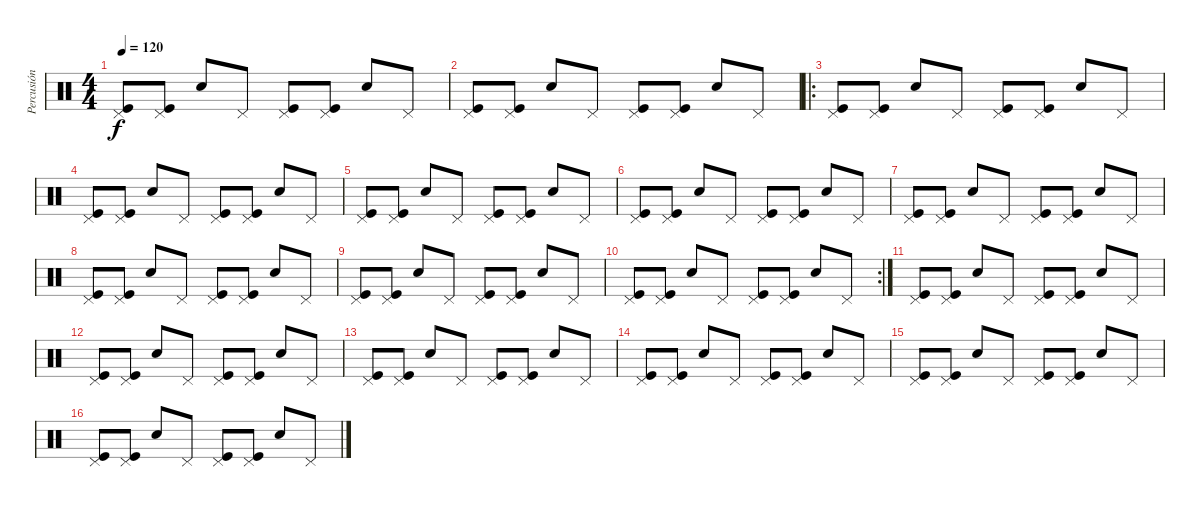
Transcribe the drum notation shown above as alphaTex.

\track ("Percusión" "Percusión") {instrument percussion}
\staff {score}
\articulation defaults
\ts (4 4)
\tempo 120
\clef neutral
\ks c
("Pedal Hi-Hat (hit)" "Kick (hit)").8{dy f} ("Pedal Hi-Hat (hit)" "Kick (hit)").8 "Electric Snare (hit)".8 "Pedal Hi-Hat (hit)".8 ("Pedal Hi-Hat (hit)" "Kick (hit)").8 ("Pedal Hi-Hat (hit)" "Kick (hit)").8 "Electric Snare (hit)".8 "Pedal Hi-Hat (hit)".8 |
("Pedal Hi-Hat (hit)" "Kick (hit)").8 ("Pedal Hi-Hat (hit)" "Kick (hit)").8 "Electric Snare (hit)".8 "Pedal Hi-Hat (hit)".8 ("Pedal Hi-Hat (hit)" "Kick (hit)").8 ("Pedal Hi-Hat (hit)" "Kick (hit)").8 "Electric Snare (hit)".8 "Pedal Hi-Hat (hit)".8 |
\ro
("Pedal Hi-Hat (hit)" "Kick (hit)").8 ("Pedal Hi-Hat (hit)" "Kick (hit)").8 "Electric Snare (hit)".8 "Pedal Hi-Hat (hit)".8 ("Pedal Hi-Hat (hit)" "Kick (hit)").8 ("Pedal Hi-Hat (hit)" "Kick (hit)").8 "Electric Snare (hit)".8 "Pedal Hi-Hat (hit)".8 |
("Pedal Hi-Hat (hit)" "Kick (hit)").8 ("Pedal Hi-Hat (hit)" "Kick (hit)").8 "Electric Snare (hit)".8 "Pedal Hi-Hat (hit)".8 ("Pedal Hi-Hat (hit)" "Kick (hit)").8 ("Pedal Hi-Hat (hit)" "Kick (hit)").8 "Electric Snare (hit)".8 "Pedal Hi-Hat (hit)".8 |
("Pedal Hi-Hat (hit)" "Kick (hit)").8 ("Pedal Hi-Hat (hit)" "Kick (hit)").8 "Electric Snare (hit)".8 "Pedal Hi-Hat (hit)".8 ("Pedal Hi-Hat (hit)" "Kick (hit)").8 ("Pedal Hi-Hat (hit)" "Kick (hit)").8 "Electric Snare (hit)".8 "Pedal Hi-Hat (hit)".8 |
("Pedal Hi-Hat (hit)" "Kick (hit)").8 ("Pedal Hi-Hat (hit)" "Kick (hit)").8 "Electric Snare (hit)".8 "Pedal Hi-Hat (hit)".8 ("Pedal Hi-Hat (hit)" "Kick (hit)").8 ("Pedal Hi-Hat (hit)" "Kick (hit)").8 "Electric Snare (hit)".8 "Pedal Hi-Hat (hit)".8 |
("Pedal Hi-Hat (hit)" "Kick (hit)").8 ("Pedal Hi-Hat (hit)" "Kick (hit)").8 "Electric Snare (hit)".8 "Pedal Hi-Hat (hit)".8 ("Pedal Hi-Hat (hit)" "Kick (hit)").8 ("Pedal Hi-Hat (hit)" "Kick (hit)").8 "Electric Snare (hit)".8 "Pedal Hi-Hat (hit)".8 |
("Pedal Hi-Hat (hit)" "Kick (hit)").8 ("Pedal Hi-Hat (hit)" "Kick (hit)").8 "Electric Snare (hit)".8 "Pedal Hi-Hat (hit)".8 ("Pedal Hi-Hat (hit)" "Kick (hit)").8 ("Pedal Hi-Hat (hit)" "Kick (hit)").8 "Electric Snare (hit)".8 "Pedal Hi-Hat (hit)".8 |
("Pedal Hi-Hat (hit)" "Kick (hit)").8 ("Pedal Hi-Hat (hit)" "Kick (hit)").8 "Electric Snare (hit)".8 "Pedal Hi-Hat (hit)".8 ("Pedal Hi-Hat (hit)" "Kick (hit)").8 ("Pedal Hi-Hat (hit)" "Kick (hit)").8 "Electric Snare (hit)".8 "Pedal Hi-Hat (hit)".8 |
\rc 2
("Pedal Hi-Hat (hit)" "Kick (hit)").8 ("Pedal Hi-Hat (hit)" "Kick (hit)").8 "Electric Snare (hit)".8 "Pedal Hi-Hat (hit)".8 ("Pedal Hi-Hat (hit)" "Kick (hit)").8 ("Pedal Hi-Hat (hit)" "Kick (hit)").8 "Electric Snare (hit)".8 "Pedal Hi-Hat (hit)".8 |
("Pedal Hi-Hat (hit)" "Kick (hit)").8 ("Pedal Hi-Hat (hit)" "Kick (hit)").8 "Electric Snare (hit)".8 "Pedal Hi-Hat (hit)".8 ("Pedal Hi-Hat (hit)" "Kick (hit)").8 ("Pedal Hi-Hat (hit)" "Kick (hit)").8 "Electric Snare (hit)".8 "Pedal Hi-Hat (hit)".8 |
("Pedal Hi-Hat (hit)" "Kick (hit)").8 ("Pedal Hi-Hat (hit)" "Kick (hit)").8 "Electric Snare (hit)".8 "Pedal Hi-Hat (hit)".8 ("Pedal Hi-Hat (hit)" "Kick (hit)").8 ("Pedal Hi-Hat (hit)" "Kick (hit)").8 "Electric Snare (hit)".8 "Pedal Hi-Hat (hit)".8 |
("Pedal Hi-Hat (hit)" "Kick (hit)").8 ("Pedal Hi-Hat (hit)" "Kick (hit)").8 "Electric Snare (hit)".8 "Pedal Hi-Hat (hit)".8 ("Pedal Hi-Hat (hit)" "Kick (hit)").8 ("Pedal Hi-Hat (hit)" "Kick (hit)").8 "Electric Snare (hit)".8 "Pedal Hi-Hat (hit)".8 |
("Pedal Hi-Hat (hit)" "Kick (hit)").8 ("Pedal Hi-Hat (hit)" "Kick (hit)").8 "Electric Snare (hit)".8 "Pedal Hi-Hat (hit)".8 ("Pedal Hi-Hat (hit)" "Kick (hit)").8 ("Pedal Hi-Hat (hit)" "Kick (hit)").8 "Electric Snare (hit)".8 "Pedal Hi-Hat (hit)".8 |
("Pedal Hi-Hat (hit)" "Kick (hit)").8 ("Pedal Hi-Hat (hit)" "Kick (hit)").8 "Electric Snare (hit)".8 "Pedal Hi-Hat (hit)".8 ("Pedal Hi-Hat (hit)" "Kick (hit)").8 ("Pedal Hi-Hat (hit)" "Kick (hit)").8 "Electric Snare (hit)".8 "Pedal Hi-Hat (hit)".8 |
("Pedal Hi-Hat (hit)" "Kick (hit)").8 ("Pedal Hi-Hat (hit)" "Kick (hit)").8 "Electric Snare (hit)".8 "Pedal Hi-Hat (hit)".8 ("Pedal Hi-Hat (hit)" "Kick (hit)").8 ("Pedal Hi-Hat (hit)" "Kick (hit)").8 "Electric Snare (hit)".8 "Pedal Hi-Hat (hit)".8
